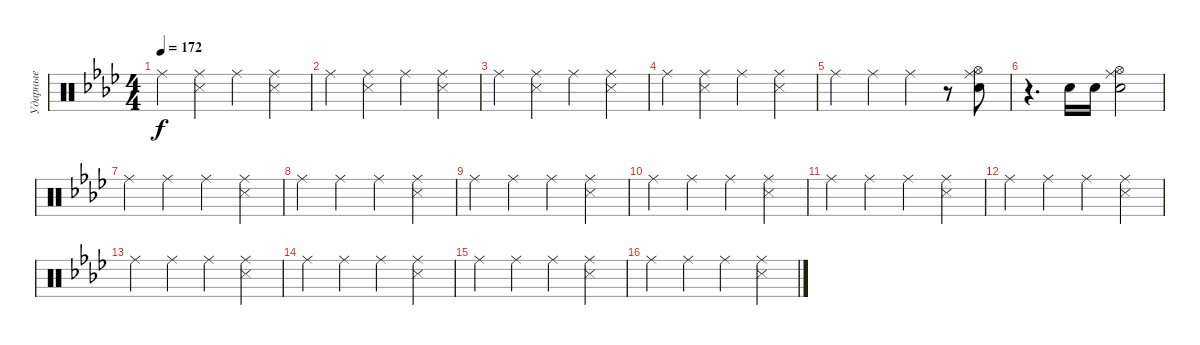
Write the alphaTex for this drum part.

\track ("Ударные" "Ударные") {instrument percussion}
\staff {score}
\articulation defaults
\ts (4 4)
\tempo 172
\clef neutral
\ks ab "Ride (middle)".4{dy f}
("Ride (middle)" "Snare (side stick) 3").4 "Ride (middle)".4 ("Ride (middle)" "Snare (side stick) 3").4 |
"Ride (middle)".4 ("Ride (middle)" "Snare (side stick) 3").4 "Ride (middle)".4 ("Ride (middle)" "Snare (side stick) 3").4 |
"Ride (middle)".4 ("Ride (middle)" "Snare (side stick) 3").4 "Ride (middle)".4 ("Ride (middle)" "Snare (side stick) 3").4 |
"Ride (middle)".4 ("Ride (middle)" "Snare (side stick) 3").4 "Ride (middle)".4 ("Ride (middle)" "Snare (side stick) 3").4 |
"Ride (middle)".4 "Ride (middle)".4 "Ride (middle)".4 r.8 ("Ride (middle)" "Hi-Hat (open)" "Electric Snare (hit)").8 |
r.4{d} "Electric Snare (hit)".16 "Electric Snare (hit)".16 ("Ride (middle)" "Hi-Hat (open)" "Electric Snare (hit)").2 |
"Ride (middle)".4 "Ride (middle)".4 "Ride (middle)".4 ("Ride (middle)" "Snare (side stick) 3").4 |
"Ride (middle)".4 "Ride (middle)".4 "Ride (middle)".4 ("Ride (middle)" "Snare (side stick) 3").4 |
"Ride (middle)".4 "Ride (middle)".4 "Ride (middle)".4 ("Ride (middle)" "Snare (side stick) 3").4 |
"Ride (middle)".4 "Ride (middle)".4 "Ride (middle)".4 ("Ride (middle)" "Snare (side stick) 3").4 |
"Ride (middle)".4 "Ride (middle)".4 "Ride (middle)".4 ("Ride (middle)" "Snare (side stick) 3").4 |
"Ride (middle)".4 "Ride (middle)".4 "Ride (middle)".4 ("Ride (middle)" "Snare (side stick) 3").4 |
"Ride (middle)".4 "Ride (middle)".4 "Ride (middle)".4 ("Ride (middle)" "Snare (side stick) 3").4 |
"Ride (middle)".4 "Ride (middle)".4 "Ride (middle)".4 ("Ride (middle)" "Snare (side stick) 3").4 |
"Ride (middle)".4 "Ride (middle)".4 "Ride (middle)".4 ("Ride (middle)" "Snare (side stick) 3").4 |
"Ride (middle)".4 "Ride (middle)".4 "Ride (middle)".4 ("Ride (middle)" "Snare (side stick) 3").4
